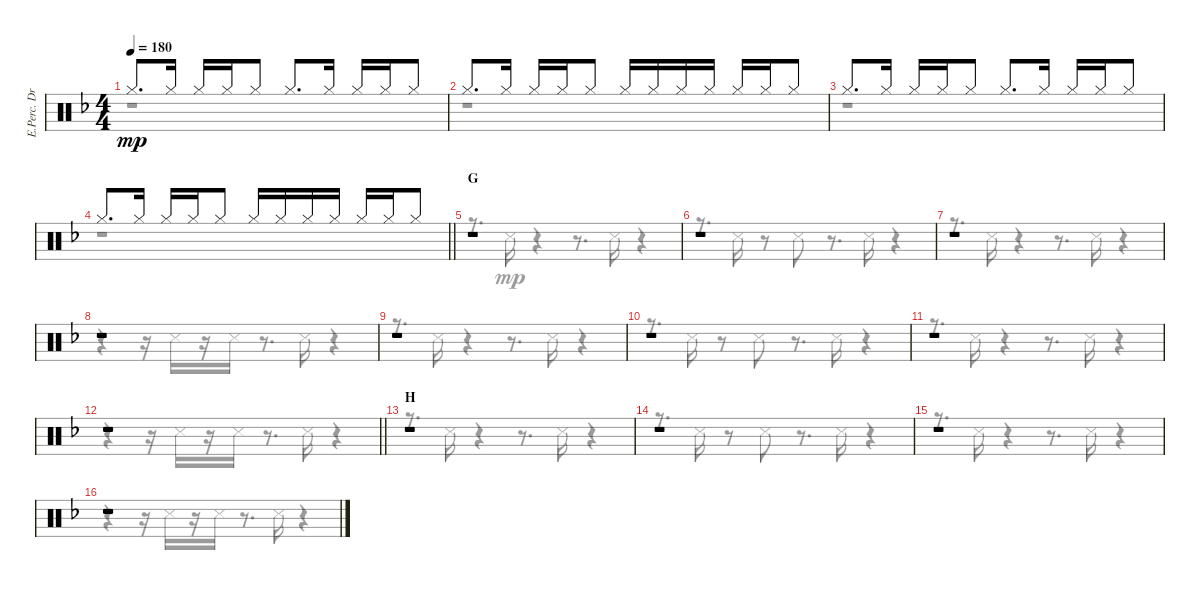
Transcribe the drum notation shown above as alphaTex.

\track ("E.Perc. Drums" "E.Perc. Dr") {instrument percussion}
\staff {score}
\articulation defaults
\voice
\ts (4 4)
\tempo 180
\clef neutral
\ks f "Hi-Hat (closed)".8{d dy mp} "Hi-Hat (closed)".16 "Hi-Hat (closed)".16 "Hi-Hat (closed)".16 "Hi-Hat (closed)".8 "Hi-Hat (closed)".8{d} "Hi-Hat (closed)".16 "Hi-Hat (closed)".16 "Hi-Hat (closed)".16 "Hi-Hat (closed)".8
|
"Hi-Hat (closed)".8{d} "Hi-Hat (closed)".16 "Hi-Hat (closed)".16 "Hi-Hat (closed)".16 "Hi-Hat (closed)".8 "Hi-Hat (closed)".16 "Hi-Hat (closed)".16 "Hi-Hat (closed)".16 "Hi-Hat (closed)".16 "Hi-Hat (closed)".16 "Hi-Hat (closed)".16 "Hi-Hat (closed)".8 |
"Hi-Hat (closed)".8{d} "Hi-Hat (closed)".16 "Hi-Hat (closed)".16 "Hi-Hat (closed)".16 "Hi-Hat (closed)".8 "Hi-Hat (closed)".8{d} "Hi-Hat (closed)".16 "Hi-Hat (closed)".16 "Hi-Hat (closed)".16 "Hi-Hat (closed)".8 |
\barLineRight lightlight "Hi-Hat (closed)".8{d} "Hi-Hat (closed)".16 "Hi-Hat (closed)".16 "Hi-Hat (closed)".16 "Hi-Hat (closed)".8 "Hi-Hat (closed)".16 "Hi-Hat (closed)".16 "Hi-Hat (closed)".16 "Hi-Hat (closed)".16 "Hi-Hat (closed)".16 "Hi-Hat (closed)".16 "Hi-Hat (closed)".8
|
\section ("" "G")
r.1 |
r.1 |
r.1 |
r.1 |
r.1 |
r.1 |
r.1 |
\barLineRight lightlight
r.1 |
\section ("" "H")
r.1 |
r.1 |
r.1 |
r.1
\voice
\clef neutral
\ottava regular
\simile none
\ks f
r.1{dy mp} |
r.1 |
r.1 |
\barLineRight lightlight
r.1 |
r.8{d} "Snare (side stick) 3".16 r.4 r.8{d} "Snare (side stick) 3".16 r.4 |
r.8{d} "Snare (side stick) 3".16 r.8 "Snare (side stick) 3".8 r.8{d} "Snare (side stick) 3".16 r.4 |
r.8{d} "Snare (side stick) 3".16 r.4 r.8{d} "Snare (side stick) 3".16 r.4 |
r.4 r.16 "Snare (side stick) 3".16 r.16 "Snare (side stick) 3".16 r.8{d} "Snare (side stick) 3".16 r.4 |
r.8{d} "Snare (side stick) 3".16 r.4 r.8{d} "Snare (side stick) 3".16 r.4 |
r.8{d} "Snare (side stick) 3".16 r.8 "Snare (side stick) 3".8 r.8{d} "Snare (side stick) 3".16 r.4 |
r.8{d} "Snare (side stick) 3".16 r.4 r.8{d} "Snare (side stick) 3".16 r.4 |
\barLineRight lightlight
r.4 r.16 "Snare (side stick) 3".16 r.16 "Snare (side stick) 3".16 r.8{d} "Snare (side stick) 3".16 r.4 |
r.8{d} "Snare (side stick) 3".16 r.4 r.8{d} "Snare (side stick) 3".16 r.4 |
r.8{d} "Snare (side stick) 3".16 r.8 "Snare (side stick) 3".8 r.8{d} "Snare (side stick) 3".16 r.4 |
r.8{d} "Snare (side stick) 3".16 r.4 r.8{d} "Snare (side stick) 3".16 r.4 |
r.4 r.16 "Snare (side stick) 3".16 r.16 "Snare (side stick) 3".16 r.8{d} "Snare (side stick) 3".16 r.4
